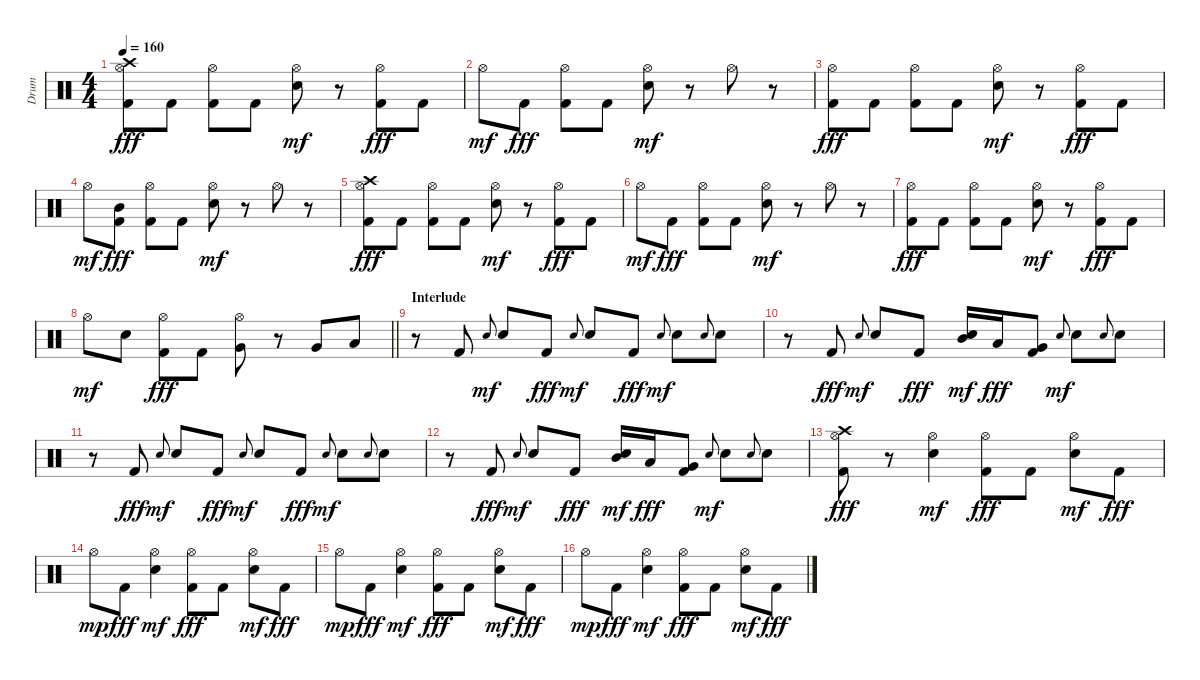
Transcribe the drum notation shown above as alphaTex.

\track ("Drum" "Drum") {instrument percussion}
\staff {score}
\articulation defaults
\ts (4 4)
\tempo 160
\clef neutral
\ks c
("Hi-Hat (open)" "Kick (hit) 2" "Crash high (hit)").8{dy fff} "Kick (hit) 2".8 ("Hi-Hat (open)" "Kick (hit) 2").8 "Kick (hit) 2".8 ("Hi-Hat (open)" "Electric Snare (hit)").8{dy mf} r.8 ("Hi-Hat (open)" "Kick (hit) 2").8{dy fff} "Kick (hit) 2".8 |
"Hi-Hat (open)".8{dy mf} "Kick (hit) 2".8{dy fff} ("Hi-Hat (open)" "Kick (hit) 2").8 "Kick (hit) 2".8 ("Hi-Hat (open)" "Electric Snare (hit)").8{dy mf} r.8 "Hi-Hat (open)".8 r.8 |
("Hi-Hat (open)" "Kick (hit) 2").8{dy fff} "Kick (hit) 2".8 ("Hi-Hat (open)" "Kick (hit) 2").8 "Kick (hit) 2".8 ("Hi-Hat (open)" "Electric Snare (hit)").8{dy mf} r.8 ("Hi-Hat (open)" "Kick (hit) 2").8{dy fff} "Kick (hit) 2".8 |
"Hi-Hat (open)".8{dy mf} ("Mid Tom (hit)" "Kick (hit) 2").8{dy fff} ("Hi-Hat (open)" "Kick (hit) 2").8 "Kick (hit) 2".8 ("Hi-Hat (open)" "Electric Snare (hit)").8{dy mf} r.8 "Hi-Hat (open)".8 r.8 |
("Hi-Hat (open)" "Kick (hit) 2" "Crash high (hit)").8{dy fff} "Kick (hit) 2".8 ("Hi-Hat (open)" "Kick (hit) 2").8 "Kick (hit) 2".8 ("Hi-Hat (open)" "Electric Snare (hit)").8{dy mf} r.8 ("Hi-Hat (open)" "Kick (hit) 2").8{dy fff} "Kick (hit) 2".8 |
"Hi-Hat (open)".8{dy mf} "Kick (hit) 2".8{dy fff} ("Hi-Hat (open)" "Kick (hit) 2").8 "Kick (hit) 2".8 ("Hi-Hat (open)" "Electric Snare (hit)").8{dy mf} r.8 "Hi-Hat (open)".8 r.8 |
("Hi-Hat (open)" "Kick (hit) 2").8{dy fff} "Kick (hit) 2".8 ("Hi-Hat (open)" "Kick (hit) 2").8 "Kick (hit) 2".8 ("Hi-Hat (open)" "Electric Snare (hit)").8{dy mf} r.8 ("Hi-Hat (open)" "Kick (hit) 2").8{dy fff} "Kick (hit) 2".8 |
\barLineRight lightlight "Hi-Hat (open)".8{dy mf} "Electric Snare (hit)".8
("Hi-Hat (open)" "Kick (hit) 2").8{dy fff} "Kick (hit) 2".8 ("Hi-Hat (open)" "Very Low Tom (hit)").8 r.8 "Very Low Tom (hit)".8 "Low Floor Tom (hit)".8 |
\section ("" "Interlude")
r.8 "Kick (hit) 2".8 "Electric Snare (hit)".8{gr onbeat dy mf} "Electric Snare (hit)".8 "Kick (hit) 2".8{dy fff} "Electric Snare (hit)".8{gr onbeat dy mf} "Electric Snare (hit)".8 "Kick (hit) 2".8{dy fff} "Electric Snare (hit)".8{gr onbeat dy mf} "Electric Snare (hit)".8 "Electric Snare (hit)".8{gr onbeat} "Electric Snare (hit)".8 |
r.8 "Kick (hit) 2".8{dy fff} "Electric Snare (hit)".8{gr onbeat dy mf} "Electric Snare (hit)".8 "Kick (hit) 2".8{dy fff} ("Mid Tom (hit)" "Electric Snare (hit)").16{dy mf} "Low Tom (hit)".16{dy fff} ("Very Low Tom (hit)" "Kick (hit) 2").8 "Electric Snare (hit)".8{gr onbeat dy mf} "Electric Snare (hit)".8 "Electric Snare (hit)".8{gr onbeat} "Electric Snare (hit)".8 |
r.8 "Kick (hit) 2".8{dy fff} "Electric Snare (hit)".8{gr onbeat dy mf} "Electric Snare (hit)".8 "Kick (hit) 2".8{dy fff} "Electric Snare (hit)".8{gr onbeat dy mf} "Electric Snare (hit)".8 "Kick (hit) 2".8{dy fff} "Electric Snare (hit)".8{gr onbeat dy mf} "Electric Snare (hit)".8 "Electric Snare (hit)".8{gr onbeat} "Electric Snare (hit)".8 |
r.8 "Kick (hit) 2".8{dy fff} "Electric Snare (hit)".8{gr onbeat dy mf} "Electric Snare (hit)".8 "Kick (hit) 2".8{dy fff} ("Mid Tom (hit)" "Electric Snare (hit)").16{dy mf} "Low Tom (hit)".16{dy fff} ("Very Low Tom (hit)" "Kick (hit) 2").8 "Electric Snare (hit)".8{gr onbeat dy mf} "Electric Snare (hit)".8 "Electric Snare (hit)".8{gr onbeat} "Electric Snare (hit)".8 |
("Hi-Hat (open)" "Kick (hit) 2" "Crash high (hit)").8{dy fff} r.8 ("Hi-Hat (open)" "Electric Snare (hit)").4{dy mf} ("Hi-Hat (open)" "Kick (hit) 2").8{dy fff} "Kick (hit) 2".8 ("Hi-Hat (open)" "Electric Snare (hit)").8{dy mf} "Kick (hit) 2".8{dy fff} |
"Hi-Hat (open)".8{dy mp} "Kick (hit) 2".8{dy fff} ("Hi-Hat (open)" "Electric Snare (hit)").4{dy mf} ("Hi-Hat (open)" "Kick (hit) 2").8{dy fff} "Kick (hit) 2".8 ("Hi-Hat (open)" "Electric Snare (hit)").8{dy mf} "Kick (hit) 2".8{dy fff} |
"Hi-Hat (open)".8{dy mp} "Kick (hit) 2".8{dy fff} ("Hi-Hat (open)" "Electric Snare (hit)").4{dy mf} ("Hi-Hat (open)" "Kick (hit) 2").8{dy fff} "Kick (hit) 2".8 ("Hi-Hat (open)" "Electric Snare (hit)").8{dy mf} "Kick (hit) 2".8{dy fff} |
"Hi-Hat (open)".8{dy mp} "Kick (hit) 2".8{dy fff} ("Hi-Hat (open)" "Electric Snare (hit)").4{dy mf} ("Hi-Hat (open)" "Kick (hit) 2").8{dy fff} "Kick (hit) 2".8 ("Hi-Hat (open)" "Electric Snare (hit)").8{dy mf} "Kick (hit) 2".8{dy fff}
